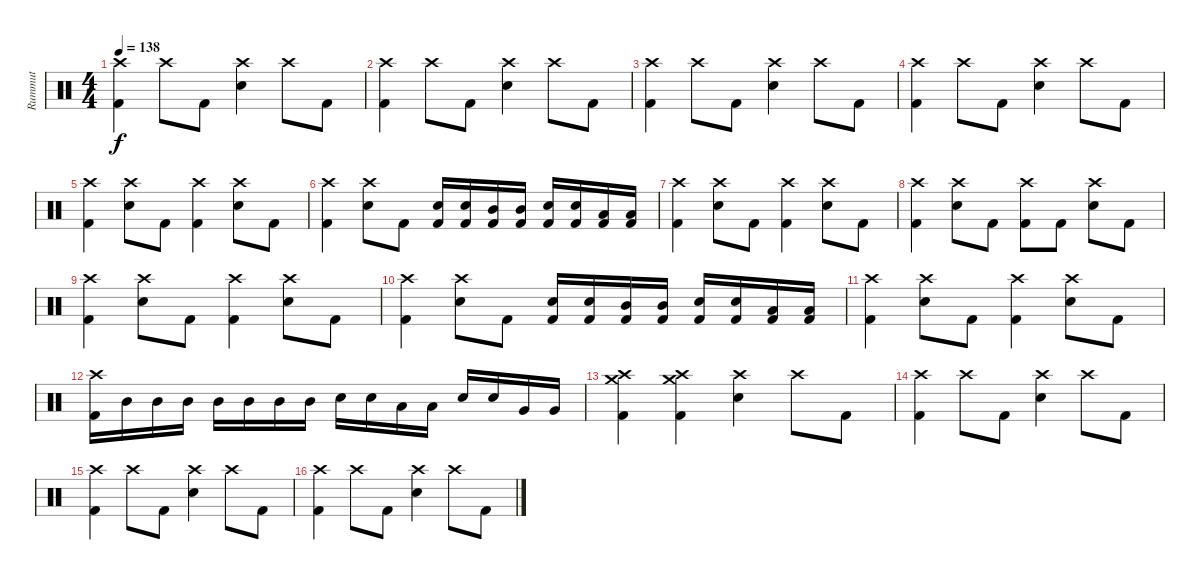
\track ("Rummut" "Rummut") {instrument percussion}
\staff {score}
\articulation defaults
\ts (4 4)
\tempo 138
\clef neutral
\ks c
("Crash high (hit)" "Kick (hit) 2").4{dy f} "Crash high (hit)".8 "Kick (hit) 2".8 ("Crash high (hit)" "Snare (hit) 2").4 "Crash high (hit)".8 "Kick (hit) 2".8 |
("Crash high (hit)" "Kick (hit) 2").4 "Crash high (hit)".8 "Kick (hit) 2".8 ("Crash high (hit)" "Snare (hit) 2").4 "Crash high (hit)".8 "Kick (hit) 2".8 |
("Crash high (hit)" "Kick (hit) 2").4 "Crash high (hit)".8 "Kick (hit) 2".8 ("Crash high (hit)" "Snare (hit) 2").4 "Crash high (hit)".8 "Kick (hit) 2".8 |
("Crash high (hit)" "Kick (hit) 2").4 "Crash high (hit)".8 "Kick (hit) 2".8 ("Crash high (hit)" "Snare (hit) 2").4 "Crash high (hit)".8 "Kick (hit) 2".8 |
("Crash high (hit)" "Kick (hit) 2").4 ("Crash high (hit)" "Snare (hit) 2").8 "Kick (hit) 2".8 ("Crash high (hit)" "Kick (hit) 2").4 ("Crash high (hit)" "Snare (hit) 2").8 "Kick (hit) 2".8 |
("Crash high (hit)" "Kick (hit) 2").4 ("Crash high (hit)" "Snare (hit) 2").8 "Kick (hit) 2".8 ("Snare (hit) 2" "Kick (hit) 2").16 ("Snare (hit) 2" "Kick (hit) 2").16 ("Mid Tom (hit)" "Kick (hit) 2").16 ("Mid Tom (hit)" "Kick (hit) 2").16 ("Snare (hit) 2" "Kick (hit) 2").16 ("Snare (hit) 2" "Kick (hit) 2").16 ("Low Tom (hit)" "Kick (hit) 2").16 ("Low Tom (hit)" "Kick (hit) 2").16 |
("Crash high (hit)" "Kick (hit) 2").4 ("Crash high (hit)" "Snare (hit) 2").8 "Kick (hit) 2".8 ("Crash high (hit)" "Kick (hit) 2").4 ("Crash high (hit)" "Snare (hit) 2").8 "Kick (hit) 2".8 |
("Crash high (hit)" "Kick (hit) 2").4 ("Crash high (hit)" "Snare (hit) 2").8 "Kick (hit) 2".8 ("Crash high (hit)" "Kick (hit) 2").8 "Kick (hit) 2".8 ("Crash high (hit)" "Snare (hit) 2").8 "Kick (hit) 2".8 |
("Crash high (hit)" "Kick (hit) 2").4 ("Crash high (hit)" "Snare (hit) 2").8 "Kick (hit) 2".8 ("Crash high (hit)" "Kick (hit) 2").4 ("Crash high (hit)" "Snare (hit) 2").8 "Kick (hit) 2".8 |
("Crash high (hit)" "Kick (hit) 2").4 ("Crash high (hit)" "Snare (hit) 2").8 "Kick (hit) 2".8 ("Snare (hit) 2" "Kick (hit) 2").16 ("Snare (hit) 2" "Kick (hit) 2").16 ("Mid Tom (hit)" "Kick (hit) 2").16 ("Mid Tom (hit)" "Kick (hit) 2").16 ("Snare (hit) 2" "Kick (hit) 2").16 ("Snare (hit) 2" "Kick (hit) 2").16 ("Low Tom (hit)" "Kick (hit) 2").16 ("Low Tom (hit)" "Kick (hit) 2").16 |
("Crash high (hit)" "Kick (hit) 2").4 ("Crash high (hit)" "Snare (hit) 2").8 "Kick (hit) 2".8 ("Crash high (hit)" "Kick (hit) 2").4 ("Crash high (hit)" "Snare (hit) 2").8 "Kick (hit) 2".8 |
("Crash high (hit)" "Kick (hit) 2").16 "Mid Tom (hit)".16 "Mid Tom (hit)".16 "Mid Tom (hit)".16 "Mid Tom (hit)".16 "Mid Tom (hit)".16 "Mid Tom (hit)".16 "Mid Tom (hit)".16 "Snare (hit) 2".16 "Snare (hit) 2".16 "Low Tom (hit)".16 "Low Tom (hit)".16 "Snare (hit) 2".16 "Snare (hit) 2".16 "Very Low Tom (hit)".16 "Very Low Tom (hit)".16 |
("Crash high (hit)" "Crash medium (hit)" "Kick (hit) 2").4 ("Crash high (hit)" "Crash medium (hit)" "Kick (hit) 2").4 ("Crash high (hit)" "Snare (hit) 2").4 "Crash high (hit)".8 "Kick (hit) 2".8 |
("Crash high (hit)" "Kick (hit) 2").4 "Crash high (hit)".8 "Kick (hit) 2".8 ("Crash high (hit)" "Snare (hit) 2").4 "Crash high (hit)".8 "Kick (hit) 2".8 |
("Crash high (hit)" "Kick (hit) 2").4 "Crash high (hit)".8 "Kick (hit) 2".8 ("Crash high (hit)" "Snare (hit) 2").4 "Crash high (hit)".8 "Kick (hit) 2".8 |
("Crash high (hit)" "Kick (hit) 2").4 "Crash high (hit)".8 "Kick (hit) 2".8 ("Crash high (hit)" "Snare (hit) 2").4 "Crash high (hit)".8 "Kick (hit) 2".8
